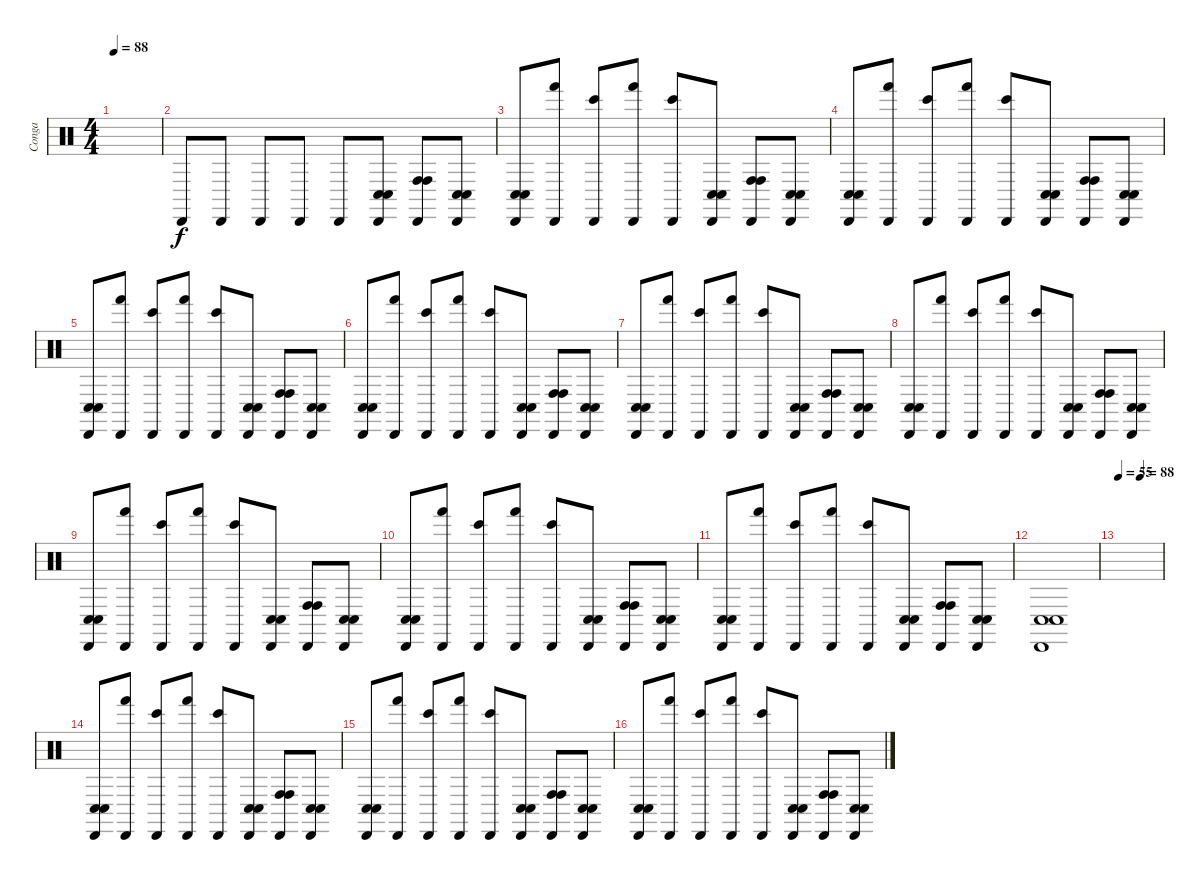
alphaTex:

\track ("Conga" "Conga") {instrument percussion}
\staff {score}
\articulation defaults
\ts (4 4)
\tempo 88
\clef neutral
\ks c
|
"Cabasa (hit)".8 "Cabasa (hit)".8 "Cabasa (hit)".8 "Cabasa (hit)".8 "Cabasa (hit)".8 ("Cabasa (hit)" "Conga low (hit)" "Conga low (hit)").8 ("Cabasa (hit)" "Conga high (hit)" "Conga high (hit)").8 ("Cabasa (hit)" "Conga low (hit)" "Conga low (hit)").8 |
("Cabasa (hit)" "Conga low (hit)" "Conga low (hit)").8 ("Cabasa (hit)" "Hand (hit)").8 ("Cabasa (hit)" "Bongo High (hit)").8 ("Cabasa (hit)" "Hand (hit)").8 ("Cabasa (hit)" "Bongo High (hit)").8 ("Cabasa (hit)" "Conga low (hit)" "Conga low (hit)").8 ("Cabasa (hit)" "Conga high (hit)" "Conga high (hit)").8 ("Cabasa (hit)" "Conga low (hit)" "Conga low (hit)").8 |
("Cabasa (hit)" "Conga low (hit)" "Conga low (hit)").8 ("Cabasa (hit)" "Hand (hit)").8 ("Cabasa (hit)" "Bongo High (hit)").8 ("Cabasa (hit)" "Hand (hit)").8 ("Cabasa (hit)" "Bongo High (hit)").8 ("Cabasa (hit)" "Conga low (hit)" "Conga low (hit)").8 ("Cabasa (hit)" "Conga high (hit)" "Conga high (hit)").8 ("Cabasa (hit)" "Conga low (hit)" "Conga low (hit)").8 |
("Cabasa (hit)" "Conga low (hit)" "Conga low (hit)").8 ("Cabasa (hit)" "Hand (hit)").8 ("Cabasa (hit)" "Bongo High (hit)").8 ("Cabasa (hit)" "Hand (hit)").8 ("Cabasa (hit)" "Bongo High (hit)").8 ("Cabasa (hit)" "Conga low (hit)" "Conga low (hit)").8 ("Cabasa (hit)" "Conga high (hit)" "Conga high (hit)").8 ("Cabasa (hit)" "Conga low (hit)" "Conga low (hit)").8 |
("Cabasa (hit)" "Conga low (hit)" "Conga low (hit)").8 ("Cabasa (hit)" "Hand (hit)").8 ("Cabasa (hit)" "Bongo High (hit)").8 ("Cabasa (hit)" "Hand (hit)").8 ("Cabasa (hit)" "Bongo High (hit)").8 ("Cabasa (hit)" "Conga low (hit)" "Conga low (hit)").8 ("Cabasa (hit)" "Conga high (hit)" "Conga high (hit)").8 ("Cabasa (hit)" "Conga low (hit)" "Conga low (hit)").8 |
("Cabasa (hit)" "Conga low (hit)" "Conga low (hit)").8 ("Cabasa (hit)" "Hand (hit)").8 ("Cabasa (hit)" "Bongo High (hit)").8 ("Cabasa (hit)" "Hand (hit)").8 ("Cabasa (hit)" "Bongo High (hit)").8 ("Cabasa (hit)" "Conga low (hit)" "Conga low (hit)").8 ("Cabasa (hit)" "Conga high (hit)" "Conga high (hit)").8 ("Cabasa (hit)" "Conga low (hit)" "Conga low (hit)").8 |
("Cabasa (hit)" "Conga low (hit)" "Conga low (hit)").8 ("Cabasa (hit)" "Hand (hit)").8 ("Cabasa (hit)" "Bongo High (hit)").8 ("Cabasa (hit)" "Hand (hit)").8 ("Cabasa (hit)" "Bongo High (hit)").8 ("Cabasa (hit)" "Conga low (hit)" "Conga low (hit)").8 ("Cabasa (hit)" "Conga high (hit)" "Conga high (hit)").8 ("Cabasa (hit)" "Conga low (hit)" "Conga low (hit)").8 |
("Cabasa (hit)" "Conga low (hit)" "Conga low (hit)").8 ("Cabasa (hit)" "Hand (hit)").8 ("Cabasa (hit)" "Bongo High (hit)").8 ("Cabasa (hit)" "Hand (hit)").8 ("Cabasa (hit)" "Bongo High (hit)").8 ("Cabasa (hit)" "Conga low (hit)" "Conga low (hit)").8 ("Cabasa (hit)" "Conga high (hit)" "Conga high (hit)").8 ("Cabasa (hit)" "Conga low (hit)" "Conga low (hit)").8 |
("Cabasa (hit)" "Conga low (hit)" "Conga low (hit)").8 ("Cabasa (hit)" "Hand (hit)").8 ("Cabasa (hit)" "Bongo High (hit)").8 ("Cabasa (hit)" "Hand (hit)").8 ("Cabasa (hit)" "Bongo High (hit)").8 ("Cabasa (hit)" "Conga low (hit)" "Conga low (hit)").8 ("Cabasa (hit)" "Conga high (hit)" "Conga high (hit)").8 ("Cabasa (hit)" "Conga low (hit)" "Conga low (hit)").8 |
("Cabasa (hit)" "Conga low (hit)" "Conga low (hit)").8 ("Cabasa (hit)" "Hand (hit)").8 ("Cabasa (hit)" "Bongo High (hit)").8 ("Cabasa (hit)" "Hand (hit)").8 ("Cabasa (hit)" "Bongo High (hit)").8 ("Cabasa (hit)" "Conga low (hit)" "Conga low (hit)").8 ("Cabasa (hit)" "Conga high (hit)" "Conga high (hit)").8 ("Cabasa (hit)" "Conga low (hit)" "Conga low (hit)").8 |
("Cabasa (hit)" "Conga low (hit)" "Conga low (hit)").1 |
\tempo 55
\tempo (88 0.5)
|
("Cabasa (hit)" "Conga low (hit)" "Conga low (hit)").8 ("Cabasa (hit)" "Hand (hit)").8 ("Cabasa (hit)" "Bongo High (hit)").8 ("Cabasa (hit)" "Hand (hit)").8 ("Cabasa (hit)" "Bongo High (hit)").8 ("Cabasa (hit)" "Conga low (hit)" "Conga low (hit)").8 ("Cabasa (hit)" "Conga high (hit)" "Conga high (hit)").8 ("Cabasa (hit)" "Conga low (hit)" "Conga low (hit)").8 |
("Cabasa (hit)" "Conga low (hit)" "Conga low (hit)").8 ("Cabasa (hit)" "Hand (hit)").8 ("Cabasa (hit)" "Bongo High (hit)").8 ("Cabasa (hit)" "Hand (hit)").8 ("Cabasa (hit)" "Bongo High (hit)").8 ("Cabasa (hit)" "Conga low (hit)" "Conga low (hit)").8 ("Cabasa (hit)" "Conga high (hit)" "Conga high (hit)").8 ("Cabasa (hit)" "Conga low (hit)" "Conga low (hit)").8 |
("Cabasa (hit)" "Conga low (hit)" "Conga low (hit)").8 ("Cabasa (hit)" "Hand (hit)").8 ("Cabasa (hit)" "Bongo High (hit)").8 ("Cabasa (hit)" "Hand (hit)").8 ("Cabasa (hit)" "Bongo High (hit)").8 ("Cabasa (hit)" "Conga low (hit)" "Conga low (hit)").8 ("Cabasa (hit)" "Conga high (hit)" "Conga high (hit)").8 ("Cabasa (hit)" "Conga low (hit)" "Conga low (hit)").8
